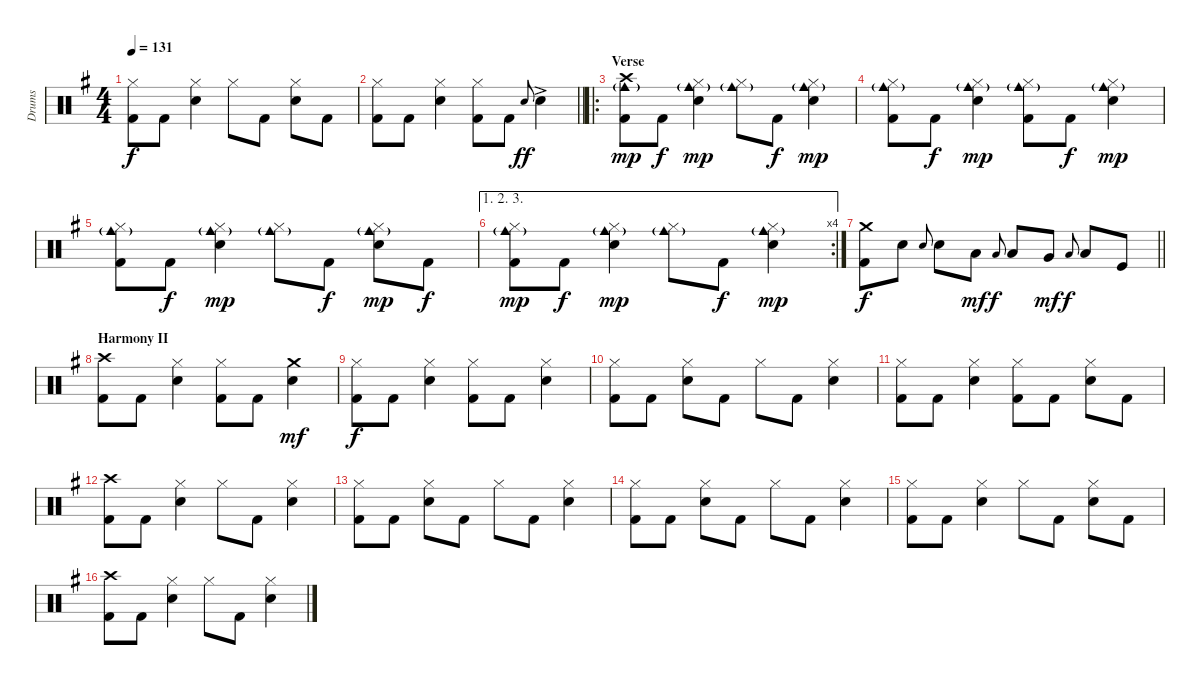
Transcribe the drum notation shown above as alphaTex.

\track ("Drums" "Drums") {instrument percussion}
\staff {score}
\articulation defaults
\ts (4 4)
\tempo 131
\clef neutral
\ks g
("Hi-Hat (closed)" "Kick (hit) 2").8{dy f} "Kick (hit) 2".8 ("Hi-Hat (closed)" "Electric Snare (hit)").4 "Hi-Hat (closed)".8 "Kick (hit) 2".8 ("Hi-Hat (closed)" "Electric Snare (hit)").8 "Kick (hit) 2".8 |
\barLineRight lightlight
("Hi-Hat (closed)" "Kick (hit) 2").8 "Kick (hit) 2".8 ("Hi-Hat (closed)" "Electric Snare (hit)").4 ("Hi-Hat (closed)" "Kick (hit) 2").8 "Kick (hit) 2".8 "Electric Snare (hit)".8{gr onbeat dy ff} "Electric Snare (hit)"{ac}.4 |
\ro
\section ("" "Verse")
("Crash high (hit)" "Cowbell medium (hit)"{g} "Kick (hit) 2").8{dy mp} "Kick (hit) 2".8{dy f} ("Hi-Hat (closed)" "Cowbell medium (hit)"{g} "Electric Snare (hit)").4{dy mp} ("Hi-Hat (closed)" "Cowbell medium (hit)"{g}).8 "Kick (hit) 2".8{dy f} ("Hi-Hat (closed)" "Cowbell medium (hit)"{g} "Electric Snare (hit)").4{dy mp} |
("Hi-Hat (closed)" "Cowbell medium (hit)"{g} "Kick (hit) 2").8 "Kick (hit) 2".8{dy f} ("Hi-Hat (closed)" "Cowbell medium (hit)"{g} "Electric Snare (hit)").4{dy mp} ("Hi-Hat (closed)" "Cowbell medium (hit)"{g} "Kick (hit) 2").8 "Kick (hit) 2".8{dy f} ("Hi-Hat (closed)" "Cowbell medium (hit)"{g} "Electric Snare (hit)").4{dy mp} |
("Hi-Hat (closed)" "Cowbell medium (hit)"{g} "Kick (hit) 2").8 "Kick (hit) 2".8{dy f} ("Hi-Hat (closed)" "Cowbell medium (hit)"{g} "Electric Snare (hit)").4{dy mp} ("Hi-Hat (closed)" "Cowbell medium (hit)"{g}).8 "Kick (hit) 2".8{dy f} ("Hi-Hat (closed)" "Cowbell medium (hit)"{g} "Electric Snare (hit)").8{dy mp} "Kick (hit) 2".8{dy f} |
\ae (1 2 3)
\rc 4
("Hi-Hat (closed)" "Cowbell medium (hit)"{g} "Kick (hit) 2").8{dy mp} "Kick (hit) 2".8{dy f} ("Hi-Hat (closed)" "Cowbell medium (hit)"{g} "Electric Snare (hit)").4{dy mp} ("Hi-Hat (closed)" "Cowbell medium (hit)"{g}).8 "Kick (hit) 2".8{dy f} ("Hi-Hat (closed)" "Cowbell medium (hit)"{g} "Electric Snare (hit)").4{dy mp} |
\barLineRight lightlight
("Crash medium (hit)" "Kick (hit) 2").8{dy f} "Electric Snare (hit)".8 "Electric Snare (hit)".8{gr onbeat} "Electric Snare (hit)".8 "Low Tom (hit)".8{dy mf} "Low Tom (hit)".8{gr onbeat dy f} "Low Tom (hit)".8 "Very Low Tom (hit)".8{dy mf} "Low Floor Tom (hit)".8{gr onbeat dy f} "Low Floor Tom (hit)".8 "Kick (hit)".8 |
\section ("" "Harmony II")
("Crash high (hit)" "Kick (hit) 2").8 "Kick (hit) 2".8 ("Hi-Hat (closed)" "Electric Snare (hit)").4 ("Hi-Hat (closed)" "Kick (hit) 2").8 "Kick (hit) 2".8 ("Crash medium (hit)" "Electric Snare (hit)").4{dy mf} |
("Hi-Hat (closed)" "Kick (hit) 2").8{dy f} "Kick (hit) 2".8 ("Hi-Hat (closed)" "Electric Snare (hit)").4 ("Hi-Hat (closed)" "Kick (hit) 2").8 "Kick (hit) 2".8 ("Hi-Hat (closed)" "Electric Snare (hit)").4 |
("Hi-Hat (closed)" "Kick (hit) 2").8 "Kick (hit) 2".8 ("Hi-Hat (closed)" "Electric Snare (hit)").8 "Kick (hit) 2".8 "Hi-Hat (closed)".8 "Kick (hit) 2".8 ("Hi-Hat (closed)" "Electric Snare (hit)").4 |
("Hi-Hat (closed)" "Kick (hit) 2").8 "Kick (hit) 2".8 ("Hi-Hat (closed)" "Electric Snare (hit)").4 ("Hi-Hat (closed)" "Kick (hit) 2").8 "Kick (hit) 2".8 ("Hi-Hat (closed)" "Electric Snare (hit)").8 "Kick (hit) 2".8 |
("Crash high (hit)" "Kick (hit) 2").8 "Kick (hit) 2".8 ("Hi-Hat (closed)" "Electric Snare (hit)").4 "Hi-Hat (closed)".8 "Kick (hit) 2".8 ("Hi-Hat (closed)" "Electric Snare (hit)").4 |
("Hi-Hat (closed)" "Kick (hit) 2").8 "Kick (hit) 2".8 ("Hi-Hat (closed)" "Electric Snare (hit)").8 "Kick (hit) 2".8 "Hi-Hat (closed)".8 "Kick (hit) 2".8 ("Hi-Hat (closed)" "Electric Snare (hit)").4 |
("Hi-Hat (closed)" "Kick (hit) 2").8 "Kick (hit) 2".8 ("Hi-Hat (closed)" "Electric Snare (hit)").8 "Kick (hit) 2".8 "Hi-Hat (closed)".8 "Kick (hit) 2".8 ("Hi-Hat (closed)" "Electric Snare (hit)").4 |
("Hi-Hat (closed)" "Kick (hit) 2").8 "Kick (hit) 2".8 ("Hi-Hat (closed)" "Electric Snare (hit)").4 "Hi-Hat (closed)".8 "Kick (hit) 2".8 ("Hi-Hat (closed)" "Electric Snare (hit)").8 "Kick (hit) 2".8 |
("Crash high (hit)" "Kick (hit) 2").8 "Kick (hit) 2".8 ("Hi-Hat (closed)" "Electric Snare (hit)").4 "Hi-Hat (closed)".8 "Kick (hit) 2".8 ("Hi-Hat (closed)" "Electric Snare (hit)").4
